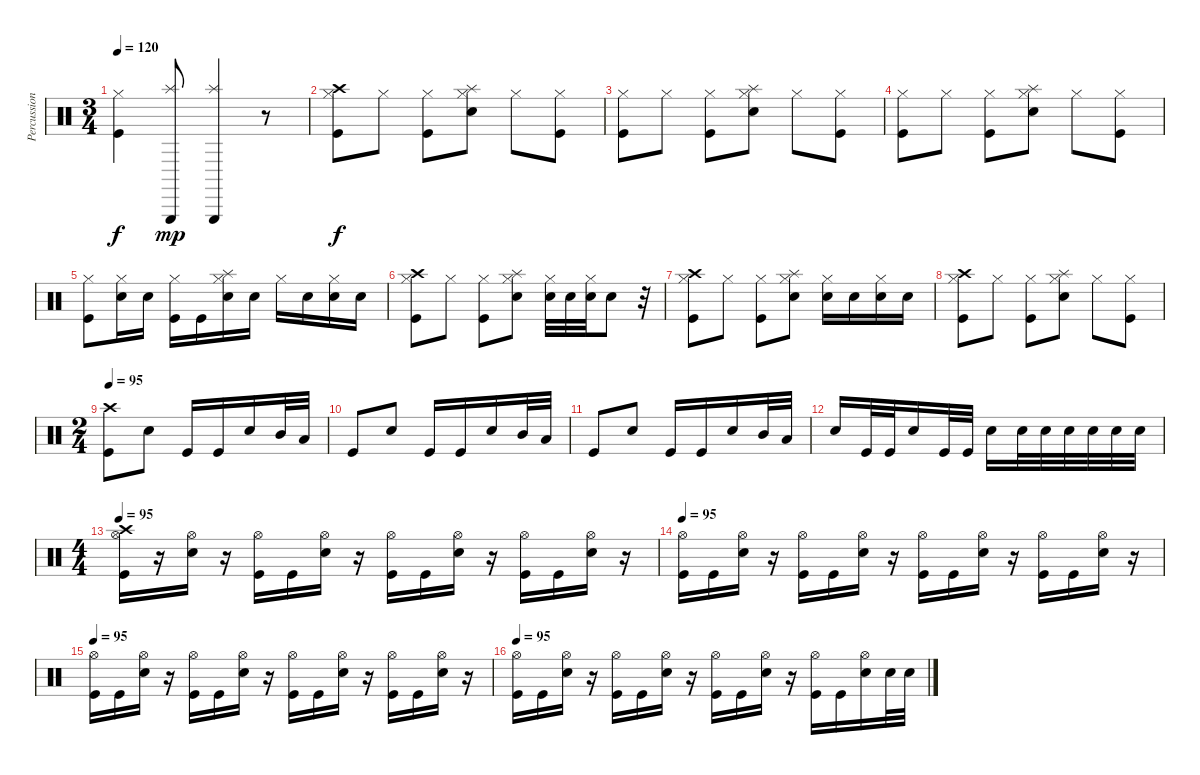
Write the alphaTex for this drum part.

\track ("Percussion" "Percussion") {instrument percussion}
\staff {score}
\articulation defaults
\ts (3 4)
\tempo 120
\clef neutral
\ks c
("Hi-Hat (closed)" "Kick (hit)").4{dy f} ("Triangle (hit)" "Splash (hit)").8{dy mp} ("Triangle (hit)" "Splash (hit)").4 r.8 |
("Hi-Hat (closed)" "Crash high (hit)" "Kick (hit)").8{dy f} "Hi-Hat (closed)".8 ("Hi-Hat (closed)" "Kick (hit)").8 ("Hi-Hat (closed)" "Splash (hit)" "Electric Snare (hit)").8 "Hi-Hat (closed)".8 ("Hi-Hat (closed)" "Kick (hit)").8 |
("Hi-Hat (closed)" "Kick (hit)").8 "Hi-Hat (closed)".8 ("Hi-Hat (closed)" "Kick (hit)").8 ("Hi-Hat (closed)" "Splash (hit)" "Electric Snare (hit)").8 "Hi-Hat (closed)".8 ("Hi-Hat (closed)" "Kick (hit)").8 |
("Hi-Hat (closed)" "Kick (hit)").8 "Hi-Hat (closed)".8 ("Hi-Hat (closed)" "Kick (hit)").8 ("Hi-Hat (closed)" "Splash (hit)" "Electric Snare (hit)").8 "Hi-Hat (closed)".8 ("Hi-Hat (closed)" "Kick (hit)").8 |
("Hi-Hat (closed)" "Kick (hit)").8 ("Hi-Hat (closed)" "Snare (hit) 2").16 "Snare (hit) 2".16 ("Hi-Hat (closed)" "Kick (hit)").16 "Kick (hit)".16 ("Hi-Hat (closed)" "Splash (hit)" "Snare (hit) 2").16 "Snare (hit) 2".16 "Hi-Hat (closed)".16 "Snare (hit) 2".16 ("Hi-Hat (closed)" "Snare (hit) 2").16 "Snare (hit) 2".16 |
("Hi-Hat (closed)" "Crash high (hit)" "Kick (hit)").8 "Hi-Hat (closed)".8 ("Hi-Hat (closed)" "Kick (hit)").8 ("Hi-Hat (closed)" "Splash (hit)" "Snare (hit) 2").8 ("Hi-Hat (closed)" "Snare (hit) 2").32 "Snare (hit) 2".32 ("Hi-Hat (closed)" "Snare (hit) 2").32 "Electric Snare (hit)".8 r.32 |
("Hi-Hat (closed)" "Crash high (hit)" "Kick (hit)").8 "Hi-Hat (closed)".8 ("Hi-Hat (closed)" "Kick (hit)").8 ("Hi-Hat (closed)" "Splash (hit)" "Electric Snare (hit)").8 ("Hi-Hat (closed)" "Snare (hit) 2").16 "Snare (hit) 2".16 ("Hi-Hat (closed)" "Snare (hit) 2").16 "Snare (hit) 2".16 |
("Hi-Hat (closed)" "Crash high (hit)" "Kick (hit)").8 "Hi-Hat (closed)".8 ("Hi-Hat (closed)" "Kick (hit)").8 ("Hi-Hat (closed)" "Splash (hit)" "Electric Snare (hit)").8 "Hi-Hat (closed)".8 ("Hi-Hat (closed)" "Kick (hit)").8 |
\ts (2 4)
\tempo 95
("Crash high (hit)" "Kick (hit)").8 "Snare (hit) 2".8 "Kick (hit)".16 "Kick (hit)".16 "Snare (hit) 2".16 "Mid Tom (hit)".32 "Low Tom (hit)".32 |
"Kick (hit)".8 "Snare (hit) 2".8 "Kick (hit)".16 "Kick (hit)".16 "Snare (hit) 2".16 "Mid Tom (hit)".32 "Low Tom (hit)".32 |
"Kick (hit)".8 "Snare (hit) 2".8 "Kick (hit)".16 "Kick (hit)".16 "Snare (hit) 2".16 "Mid Tom (hit)".32 "Low Tom (hit)".32 |
"Snare (hit) 2".16 "Kick (hit)".32 "Kick (hit)".32 "Snare (hit) 2".16 "Kick (hit)".32 "Kick (hit)".32 "Snare (hit) 2".16 "Snare (hit) 2".32 "Snare (hit) 2".32 "Snare (hit) 2".32 "Snare (hit) 2".32 "Snare (hit) 2".32 "Snare (hit) 2".32 |
\ts (4 4)
\tempo 95
("Hi-Hat (open)" "Crash high (hit)" "Kick (hit)").16 r.16 ("Hi-Hat (open)" "Snare (hit) 2").16 r.16 ("Hi-Hat (open)" "Kick (hit)").16 "Kick (hit)".16 ("Hi-Hat (open)" "Snare (hit) 2").16 r.16 ("Hi-Hat (open)" "Kick (hit)").16 "Kick (hit)".16 ("Hi-Hat (open)" "Snare (hit) 2").16 r.16 ("Hi-Hat (open)" "Kick (hit)").16 "Kick (hit)".16 ("Hi-Hat (open)" "Snare (hit) 2").16 r.16 |
\tempo 95
("Hi-Hat (open)" "Kick (hit)").16 "Kick (hit)".16 ("Hi-Hat (open)" "Snare (hit) 2").16 r.16 ("Hi-Hat (open)" "Kick (hit)").16 "Kick (hit)".16 ("Hi-Hat (open)" "Snare (hit) 2").16 r.16 ("Hi-Hat (open)" "Kick (hit)").16 "Kick (hit)".16 ("Hi-Hat (open)" "Snare (hit) 2").16 r.16 ("Hi-Hat (open)" "Kick (hit)").16 "Kick (hit)".16 ("Hi-Hat (open)" "Snare (hit) 2").16 r.16 |
\tempo 95
("Hi-Hat (open)" "Kick (hit)").16 "Kick (hit)".16 ("Hi-Hat (open)" "Snare (hit) 2").16 r.16 ("Hi-Hat (open)" "Kick (hit)").16 "Kick (hit)".16 ("Hi-Hat (open)" "Snare (hit) 2").16 r.16 ("Hi-Hat (open)" "Kick (hit)").16 "Kick (hit)".16 ("Hi-Hat (open)" "Snare (hit) 2").16 r.16 ("Hi-Hat (open)" "Kick (hit)").16 "Kick (hit)".16 ("Hi-Hat (open)" "Snare (hit) 2").16 r.16 |
\tempo 95
("Hi-Hat (open)" "Kick (hit)").16 "Kick (hit)".16 ("Hi-Hat (open)" "Snare (hit) 2").16 r.16 ("Hi-Hat (open)" "Kick (hit)").16 "Kick (hit)".16 ("Hi-Hat (open)" "Snare (hit) 2").16 r.16 ("Hi-Hat (open)" "Kick (hit)").16 "Kick (hit)".16 ("Hi-Hat (open)" "Snare (hit) 2").16 r.16 ("Hi-Hat (open)" "Kick (hit)").16 "Kick (hit)".16 ("Hi-Hat (open)" "Snare (hit) 2").16 "Snare (hit) 2".32 "Snare (hit) 2".32
